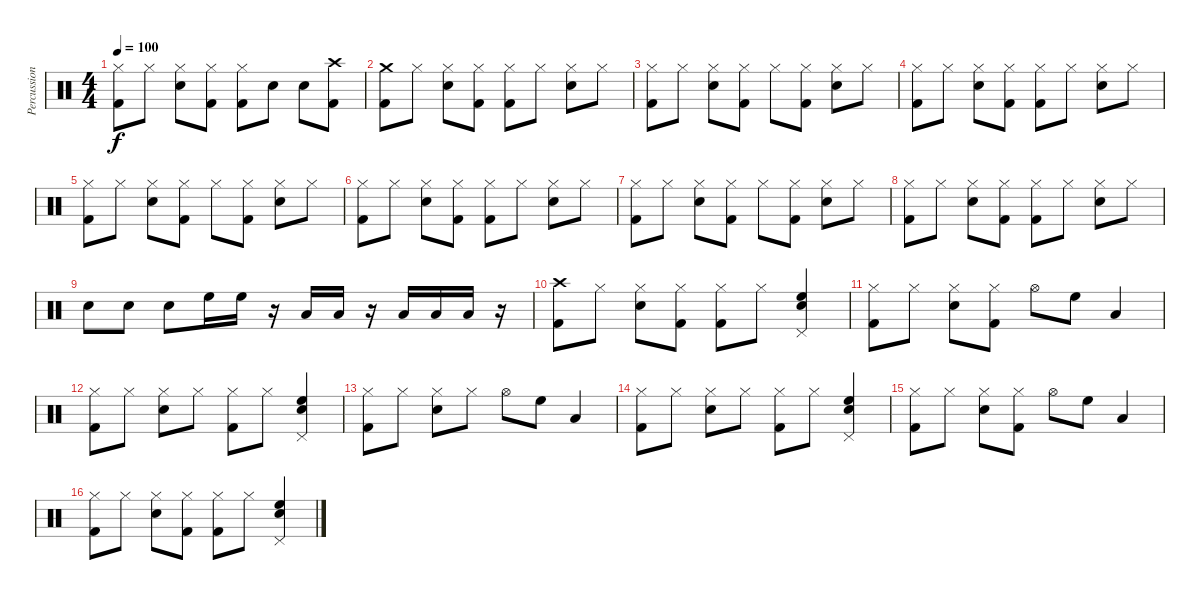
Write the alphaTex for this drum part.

\track ("Percussion" "Percussion") {instrument percussion}
\staff {score}
\articulation defaults
\ts (4 4)
\tempo 100
\clef neutral
\ks c
("Hi-Hat (closed)" "Kick (hit) 2").8{dy f} "Hi-Hat (closed)".8 ("Hi-Hat (closed)" "Snare (hit) 2").8 ("Hi-Hat (closed)" "Kick (hit) 2").8 ("Hi-Hat (closed)" "Kick (hit) 2").8 "Snare (hit) 2".8 "Snare (hit) 2".8 ("Crash high (hit)" "Kick (hit) 2").8 |
("Crash medium (hit)" "Kick (hit) 2").8 "Hi-Hat (closed)".8 ("Hi-Hat (closed)" "Snare (hit) 2").8 ("Hi-Hat (closed)" "Kick (hit) 2").8 ("Hi-Hat (closed)" "Kick (hit) 2").8 "Hi-Hat (closed)".8 ("Hi-Hat (closed)" "Snare (hit) 2").8 "Hi-Hat (closed)".8 |
("Hi-Hat (closed)" "Kick (hit) 2").8 "Hi-Hat (closed)".8 ("Hi-Hat (closed)" "Snare (hit) 2").8 ("Hi-Hat (closed)" "Kick (hit) 2").8 "Hi-Hat (closed)".8 ("Hi-Hat (closed)" "Kick (hit) 2").8 ("Hi-Hat (closed)" "Snare (hit) 2").8 "Hi-Hat (closed)".8 |
("Hi-Hat (closed)" "Kick (hit) 2").8 "Hi-Hat (closed)".8 ("Hi-Hat (closed)" "Snare (hit) 2").8 ("Hi-Hat (closed)" "Kick (hit) 2").8 ("Hi-Hat (closed)" "Kick (hit) 2").8 "Hi-Hat (closed)".8 ("Hi-Hat (closed)" "Snare (hit) 2").8 "Hi-Hat (closed)".8 |
("Hi-Hat (closed)" "Kick (hit) 2").8 "Hi-Hat (closed)".8 ("Hi-Hat (closed)" "Snare (hit) 2").8 ("Hi-Hat (closed)" "Kick (hit) 2").8 "Hi-Hat (closed)".8 ("Hi-Hat (closed)" "Kick (hit) 2").8 ("Hi-Hat (closed)" "Snare (hit) 2").8 "Hi-Hat (closed)".8 |
("Hi-Hat (closed)" "Kick (hit) 2").8 "Hi-Hat (closed)".8 ("Hi-Hat (closed)" "Snare (hit) 2").8 ("Hi-Hat (closed)" "Kick (hit) 2").8 ("Hi-Hat (closed)" "Kick (hit) 2").8 "Hi-Hat (closed)".8 ("Hi-Hat (closed)" "Snare (hit) 2").8 "Hi-Hat (closed)".8 |
("Hi-Hat (closed)" "Kick (hit) 2").8 "Hi-Hat (closed)".8 ("Hi-Hat (closed)" "Snare (hit) 2").8 ("Hi-Hat (closed)" "Kick (hit) 2").8 "Hi-Hat (closed)".8 ("Hi-Hat (closed)" "Kick (hit) 2").8 ("Hi-Hat (closed)" "Snare (hit) 2").8 "Hi-Hat (closed)".8 |
("Hi-Hat (closed)" "Kick (hit) 2").8 "Hi-Hat (closed)".8 ("Hi-Hat (closed)" "Snare (hit) 2").8 ("Hi-Hat (closed)" "Kick (hit) 2").8 ("Hi-Hat (closed)" "Kick (hit) 2").8 "Hi-Hat (closed)".8 ("Hi-Hat (closed)" "Snare (hit) 2").8 "Hi-Hat (closed)".8 |
"Snare (hit) 2".8 "Snare (hit) 2".8 "Snare (hit) 2".8 "High Floor Tom (hit)".16 "High Floor Tom (hit)".16 r.16 "Low Tom (hit)".16 "Low Tom (hit)".16 r.16 "Low Tom (hit)".16 "Low Tom (hit)".16 "Low Floor Tom (hit)".16 r.16 |
("Crash high (hit)" "Kick (hit) 2").8 "Hi-Hat (closed)".8 ("Hi-Hat (closed)" "Snare (hit) 2").8 ("Hi-Hat (closed)" "Kick (hit) 2").8 ("Hi-Hat (closed)" "Kick (hit) 2").8 "Hi-Hat (closed)".8 ("Pedal Hi-Hat (hit)" "High Floor Tom (hit)" "Snare (hit) 2").4 |
("Hi-Hat (closed)" "Kick (hit) 2").8 "Hi-Hat (closed)".8 ("Hi-Hat (closed)" "Snare (hit) 2").8 ("Hi-Hat (closed)" "Kick (hit) 2").8 "Hi-Hat (open)".8 "High Floor Tom (hit)".8 "Low Tom (hit)".4 |
("Hi-Hat (closed)" "Kick (hit) 2").8 "Hi-Hat (closed)".8 ("Hi-Hat (closed)" "Snare (hit) 2").8 "Hi-Hat (closed)".8 ("Hi-Hat (closed)" "Kick (hit) 2").8 "Hi-Hat (closed)".8 ("Pedal Hi-Hat (hit)" "High Floor Tom (hit)" "Snare (hit) 2").4 |
("Hi-Hat (closed)" "Kick (hit) 2").8 "Hi-Hat (closed)".8 ("Hi-Hat (closed)" "Snare (hit) 2").8 "Hi-Hat (closed)".8 "Hi-Hat (open)".8 "High Floor Tom (hit)".8 "Low Tom (hit)".4 |
("Hi-Hat (closed)" "Kick (hit) 2").8 "Hi-Hat (closed)".8 ("Hi-Hat (closed)" "Snare (hit) 2").8 "Hi-Hat (closed)".8 ("Hi-Hat (closed)" "Kick (hit) 2").8 "Hi-Hat (closed)".8 ("Pedal Hi-Hat (hit)" "High Floor Tom (hit)" "Snare (hit) 2").4 |
("Hi-Hat (closed)" "Kick (hit) 2").8 "Hi-Hat (closed)".8 ("Hi-Hat (closed)" "Snare (hit) 2").8 ("Hi-Hat (closed)" "Kick (hit) 2").8 "Hi-Hat (open)".8 "High Floor Tom (hit)".8 "Low Tom (hit)".4 |
("Hi-Hat (closed)" "Kick (hit) 2").8 "Hi-Hat (closed)".8 ("Hi-Hat (closed)" "Snare (hit) 2").8 ("Hi-Hat (closed)" "Kick (hit) 2").8 ("Hi-Hat (closed)" "Kick (hit) 2").8 "Hi-Hat (closed)".8 ("Pedal Hi-Hat (hit)" "High Floor Tom (hit)" "Snare (hit) 2").4
